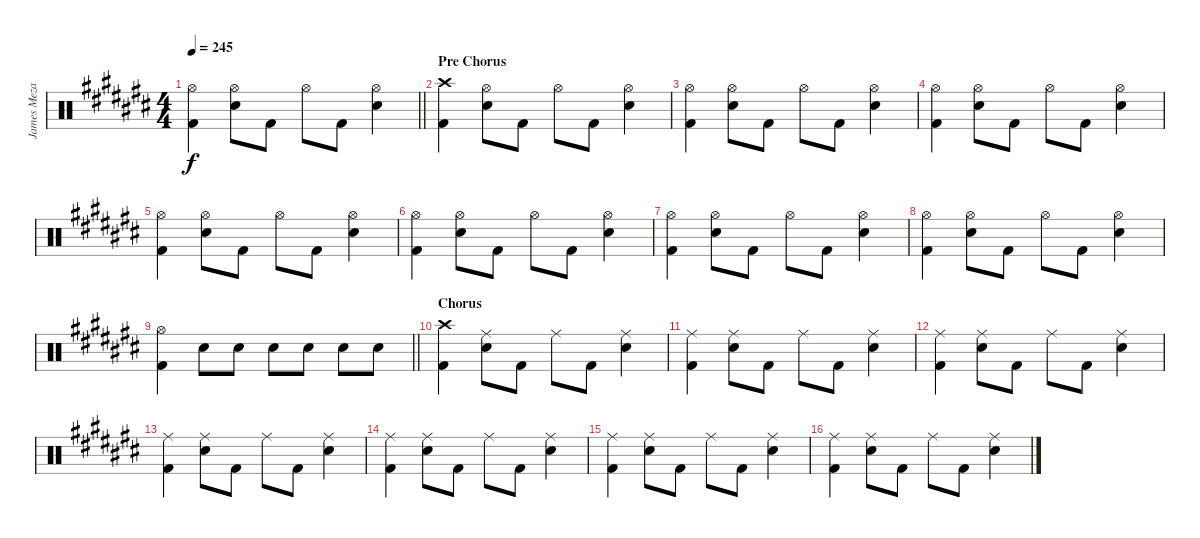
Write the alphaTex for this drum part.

\track ("James Meza" "James Meza") {instrument percussion}
\staff {score}
\articulation defaults
\ts (4 4)
\tempo 245
\clef neutral
\barLineRight lightlight
\ks c#
("Hi-Hat (open)" "Kick (hit) 2").4{dy f} ("Hi-Hat (open)" "Snare (hit) 2").8 "Kick (hit) 2".8 "Hi-Hat (open)".8 "Kick (hit) 2".8 ("Hi-Hat (open)" "Snare (hit) 2").4 |
\section ("" "Pre Chorus")
("Crash high (hit)" "Kick (hit) 2").4 ("Hi-Hat (open)" "Snare (hit) 2").8 "Kick (hit) 2".8 "Hi-Hat (open)".8 "Kick (hit) 2".8 ("Hi-Hat (open)" "Snare (hit) 2").4 |
("Hi-Hat (open)" "Kick (hit) 2").4 ("Hi-Hat (open)" "Snare (hit) 2").8 "Kick (hit) 2".8 "Hi-Hat (open)".8 "Kick (hit) 2".8 ("Hi-Hat (open)" "Snare (hit) 2").4 |
("Hi-Hat (open)" "Kick (hit) 2").4 ("Hi-Hat (open)" "Snare (hit) 2").8 "Kick (hit) 2".8 "Hi-Hat (open)".8 "Kick (hit) 2".8 ("Hi-Hat (open)" "Snare (hit) 2").4 |
("Hi-Hat (open)" "Kick (hit) 2").4 ("Hi-Hat (open)" "Snare (hit) 2").8 "Kick (hit) 2".8 "Hi-Hat (open)".8 "Kick (hit) 2".8 ("Hi-Hat (open)" "Snare (hit) 2").4 |
("Hi-Hat (open)" "Kick (hit) 2").4 ("Hi-Hat (open)" "Snare (hit) 2").8 "Kick (hit) 2".8 "Hi-Hat (open)".8 "Kick (hit) 2".8 ("Hi-Hat (open)" "Snare (hit) 2").4 |
("Hi-Hat (open)" "Kick (hit) 2").4 ("Hi-Hat (open)" "Snare (hit) 2").8 "Kick (hit) 2".8 "Hi-Hat (open)".8 "Kick (hit) 2".8 ("Hi-Hat (open)" "Snare (hit) 2").4 |
("Hi-Hat (open)" "Kick (hit) 2").4 ("Hi-Hat (open)" "Snare (hit) 2").8 "Kick (hit) 2".8 "Hi-Hat (open)".8 "Kick (hit) 2".8 ("Hi-Hat (open)" "Snare (hit) 2").4 |
\barLineRight lightlight
("Hi-Hat (open)" "Kick (hit) 2").4 "Snare (hit) 2".8 "Snare (hit) 2".8 "Snare (hit) 2".8 "Snare (hit) 2".8 "Snare (hit) 2".8 "Snare (hit) 2".8 |
\section ("" "Chorus")
("Crash high (hit)" "Kick (hit) 2").4 ("Ride (middle)" "Snare (hit) 2").8 "Kick (hit) 2".8 "Ride (middle)".8 "Kick (hit) 2".8 ("Ride (middle)" "Snare (hit) 2").4 |
("Ride (middle)" "Kick (hit) 2").4 ("Ride (middle)" "Snare (hit) 2").8 "Kick (hit) 2".8 "Ride (middle)".8 "Kick (hit) 2".8 ("Ride (middle)" "Snare (hit) 2").4 |
("Ride (middle)" "Kick (hit) 2").4 ("Ride (middle)" "Snare (hit) 2").8 "Kick (hit) 2".8 "Ride (middle)".8 "Kick (hit) 2".8 ("Ride (middle)" "Snare (hit) 2").4 |
("Ride (middle)" "Kick (hit) 2").4 ("Ride (middle)" "Snare (hit) 2").8 "Kick (hit) 2".8 "Ride (middle)".8 "Kick (hit) 2".8 ("Ride (middle)" "Snare (hit) 2").4 |
("Ride (middle)" "Kick (hit) 2").4 ("Ride (middle)" "Snare (hit) 2").8 "Kick (hit) 2".8 "Ride (middle)".8 "Kick (hit) 2".8 ("Ride (middle)" "Snare (hit) 2").4 |
("Ride (middle)" "Kick (hit) 2").4 ("Ride (middle)" "Snare (hit) 2").8 "Kick (hit) 2".8 "Ride (middle)".8 "Kick (hit) 2".8 ("Ride (middle)" "Snare (hit) 2").4 |
("Ride (middle)" "Kick (hit) 2").4 ("Ride (middle)" "Snare (hit) 2").8 "Kick (hit) 2".8 "Ride (middle)".8 "Kick (hit) 2".8 ("Ride (middle)" "Snare (hit) 2").4
